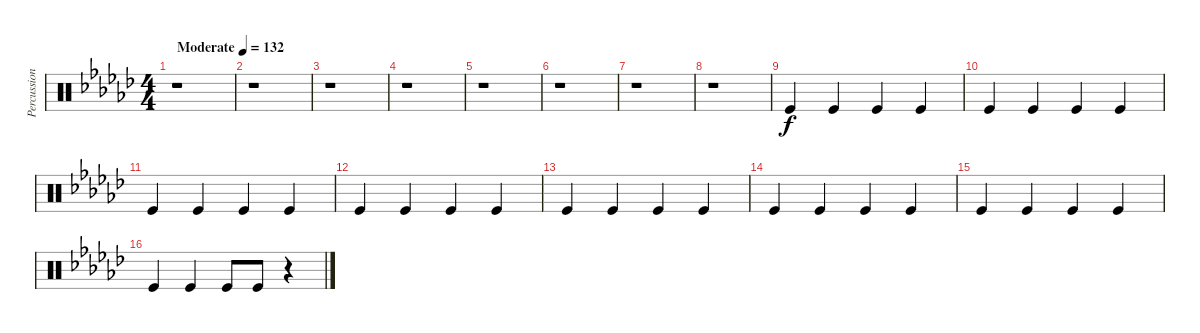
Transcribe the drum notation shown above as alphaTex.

\track ("Percussion foot" "Percussion") {instrument percussion}
\staff {score}
\articulation defaults
\ts (4 4)
\tempo (132 "Moderate")
\clef neutral
\ks gb
r.1{dy f} |
r.1 |
r.1 |
r.1 |
r.1 |
r.1 |
r.1 |
r.1 |
"Kick (hit)".4 "Kick (hit)".4 "Kick (hit)".4 "Kick (hit)".4 |
"Kick (hit)".4 "Kick (hit)".4 "Kick (hit)".4 "Kick (hit)".4 |
"Kick (hit)".4 "Kick (hit)".4 "Kick (hit)".4 "Kick (hit)".4 |
"Kick (hit)".4 "Kick (hit)".4 "Kick (hit)".4 "Kick (hit)".4 |
"Kick (hit)".4 "Kick (hit)".4 "Kick (hit)".4 "Kick (hit)".4 |
"Kick (hit)".4 "Kick (hit)".4 "Kick (hit)".4 "Kick (hit)".4 |
"Kick (hit)".4 "Kick (hit)".4 "Kick (hit)".4 "Kick (hit)".4 |
"Kick (hit)".4 "Kick (hit)".4 "Kick (hit)".8 "Kick (hit)".8 r.4
